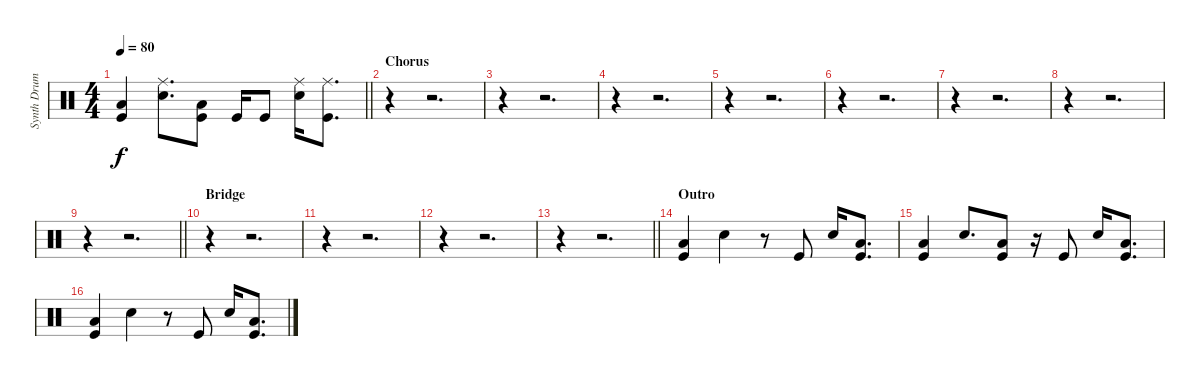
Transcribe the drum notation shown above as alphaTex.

\track ("Synth Drums" "Synth Drum") {instrument percussion}
\staff {score}
\articulation defaults
\ts (4 4)
\tempo 80
\clef neutral
\barLineRight lightlight
\ks c
("Kick (hit)" "Low Floor Tom (hit)").4{dy f} ("Snare (hit) 2" "Ride (middle)").8{d} ("Kick (hit)" "Low Floor Tom (hit)").8 "Kick (hit)".16 "Kick (hit)".8 ("Snare (hit) 2" "Ride (middle)").16 ("Kick (hit)" "Ride (middle)").8{d} |
\section ("" "Chorus")
r.4 r.2{d} |
r.4 r.2{d} |
r.4 r.2{d} |
r.4 r.2{d} |
r.4 r.2{d} |
r.4 r.2{d} |
r.4 r.2{d} |
\barLineRight lightlight
r.4 r.2{d} |
\section ("" "Bridge")
r.4 r.2{d} |
r.4 r.2{d} |
r.4 r.2{d} |
\barLineRight lightlight
r.4 r.2{d} |
\section ("" "Outro")
("Kick (hit)" "Low Floor Tom (hit)").4 "Snare (hit) 2".4 r.8 "Kick (hit)".8 "Snare (hit) 2".16 ("Kick (hit)" "Low Floor Tom (hit)").8{d} |
("Kick (hit)" "Low Floor Tom (hit)").4 "Snare (hit) 2".8{d} ("Kick (hit)" "Low Floor Tom (hit)").8 r.16 "Kick (hit)".8 "Snare (hit) 2".16 ("Kick (hit)" "Low Floor Tom (hit)").8{d} |
("Kick (hit)" "Low Floor Tom (hit)").4 "Snare (hit) 2".4 r.8 "Kick (hit)".8 "Snare (hit) 2".16 ("Kick (hit)" "Low Floor Tom (hit)").8{d}
